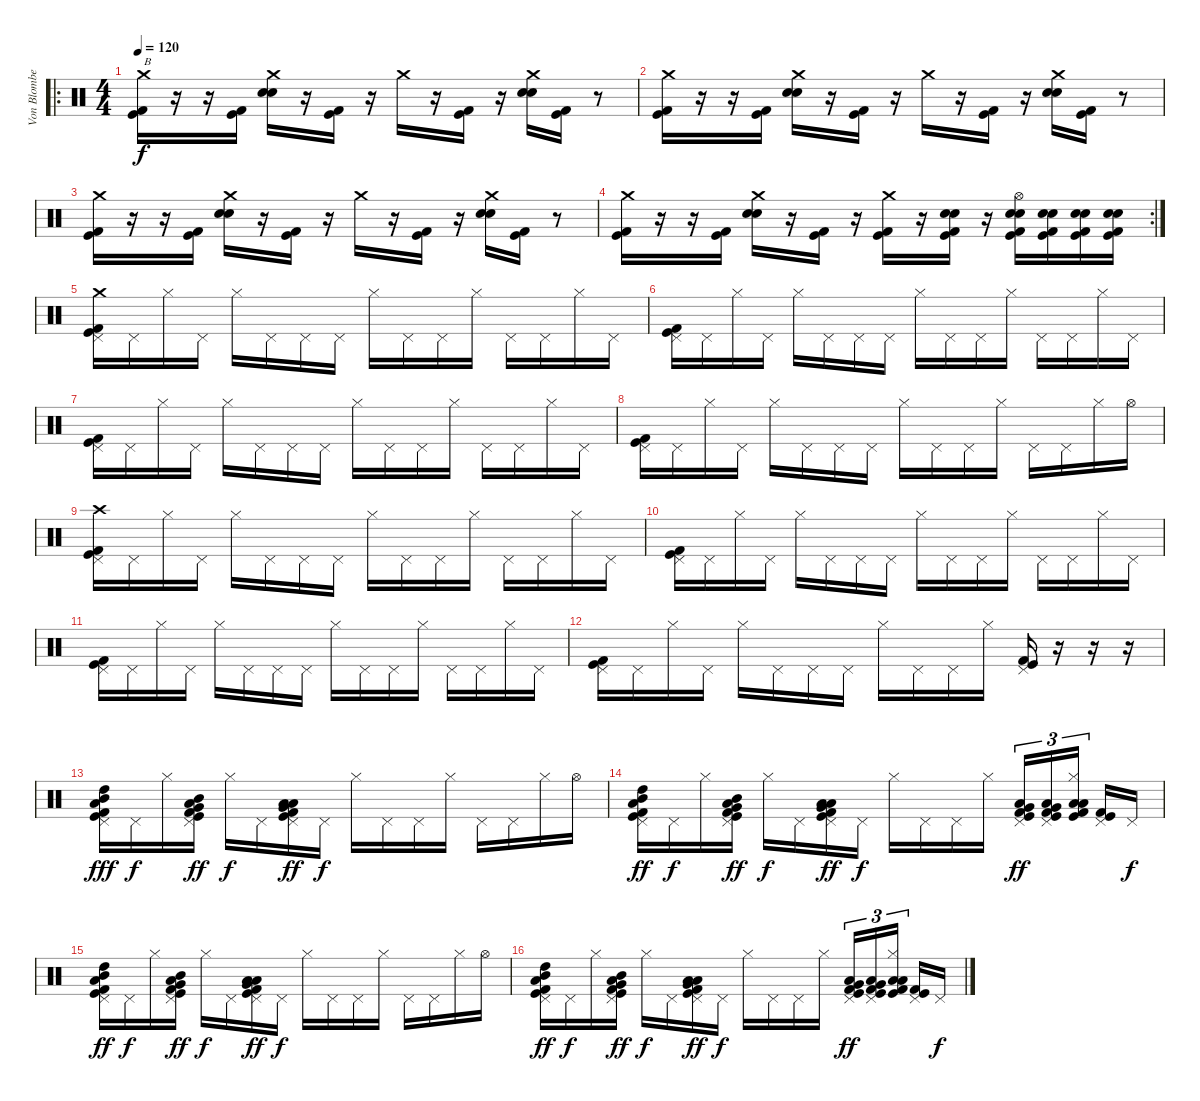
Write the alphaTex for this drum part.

\track ("Von Blomberg" "Von Blombe") {instrument percussion}
\staff {score}
\articulation defaults
\ro
\ts (4 4)
\tempo 120
\clef neutral
\ks c
("Crash medium (hit)" "Kick (hit) 2" "Kick (hit)").16{txt "B" dy f} r.16 r.16 ("Kick (hit)" "Kick (hit) 2").16 ("Crash medium (hit)" "Electric Snare (hit)" "Snare (hit) 2").16 r.16 ("Kick (hit)" "Kick (hit) 2").16 r.16 "Crash medium (hit)".16 r.16 ("Kick (hit)" "Kick (hit) 2").16 r.16 ("Crash medium (hit)" "Snare (hit) 2" "Electric Snare (hit)").16 ("Kick (hit)" "Kick (hit) 2").16 r.8 |
("Crash medium (hit)" "Kick (hit) 2" "Kick (hit)").16 r.16 r.16 ("Kick (hit)" "Kick (hit) 2").16 ("Crash medium (hit)" "Electric Snare (hit)" "Snare (hit) 2").16 r.16 ("Kick (hit)" "Kick (hit) 2").16 r.16 "Crash medium (hit)".16 r.16 ("Kick (hit)" "Kick (hit) 2").16 r.16 ("Crash medium (hit)" "Snare (hit) 2" "Electric Snare (hit)").16 ("Kick (hit)" "Kick (hit) 2").16 r.8 |
("Crash medium (hit)" "Kick (hit) 2" "Kick (hit)").16 r.16 r.16 ("Kick (hit)" "Kick (hit) 2").16 ("Crash medium (hit)" "Electric Snare (hit)" "Snare (hit) 2").16 r.16 ("Kick (hit)" "Kick (hit) 2").16 r.16 "Crash medium (hit)".16 r.16 ("Kick (hit)" "Kick (hit) 2").16 r.16 ("Crash medium (hit)" "Snare (hit) 2" "Electric Snare (hit)").16 ("Kick (hit)" "Kick (hit) 2").16 r.8 |
\rc 2
("Crash medium (hit)" "Kick (hit) 2" "Kick (hit)").16 r.16 r.16 ("Kick (hit)" "Kick (hit) 2").16 ("Crash medium (hit)" "Electric Snare (hit)" "Snare (hit) 2").16 r.16 ("Kick (hit)" "Kick (hit) 2").16 r.16 ("Crash medium (hit)" "Kick (hit)" "Kick (hit) 2").16 r.16 ("Snare (hit) 2" "Electric Snare (hit)" "Kick (hit)" "Kick (hit) 2").16 r.16 ("Kick (hit)" "Hi-Hat (open)" "Electric Snare (hit)" "Snare (hit) 2" "Kick (hit) 2").16 ("Snare (hit) 2" "Electric Snare (hit)" "Kick (hit)" "Kick (hit) 2").16 ("Snare (hit) 2" "Electric Snare (hit)" "Kick (hit)" "Kick (hit) 2").16 ("Snare (hit) 2" "Electric Snare (hit)" "Kick (hit)" "Kick (hit) 2").16 |
("Crash medium (hit)" "Pedal Hi-Hat (hit)" "Kick (hit) 2" "Kick (hit)").16 "Pedal Hi-Hat (hit)".16 "Hi-Hat (closed)".16 "Pedal Hi-Hat (hit)".16 "Hi-Hat (closed)".16 "Pedal Hi-Hat (hit)".16 "Pedal Hi-Hat (hit)".16 "Pedal Hi-Hat (hit)".16 "Hi-Hat (closed)".16 "Pedal Hi-Hat (hit)".16 "Pedal Hi-Hat (hit)".16 "Hi-Hat (closed)".16 "Pedal Hi-Hat (hit)".16 "Pedal Hi-Hat (hit)".16 "Hi-Hat (closed)".16 "Pedal Hi-Hat (hit)".16 |
("Pedal Hi-Hat (hit)" "Kick (hit) 2" "Kick (hit)").16 "Pedal Hi-Hat (hit)".16 "Hi-Hat (closed)".16 "Pedal Hi-Hat (hit)".16 "Hi-Hat (closed)".16 "Pedal Hi-Hat (hit)".16 "Pedal Hi-Hat (hit)".16 "Pedal Hi-Hat (hit)".16 "Hi-Hat (closed)".16 "Pedal Hi-Hat (hit)".16 "Pedal Hi-Hat (hit)".16 "Hi-Hat (closed)".16 "Pedal Hi-Hat (hit)".16 "Pedal Hi-Hat (hit)".16 "Hi-Hat (closed)".16 "Pedal Hi-Hat (hit)".16 |
("Pedal Hi-Hat (hit)" "Kick (hit) 2" "Kick (hit)").16 "Pedal Hi-Hat (hit)".16 "Hi-Hat (closed)".16 "Pedal Hi-Hat (hit)".16 "Hi-Hat (closed)".16 "Pedal Hi-Hat (hit)".16 "Pedal Hi-Hat (hit)".16 "Pedal Hi-Hat (hit)".16 "Hi-Hat (closed)".16 "Pedal Hi-Hat (hit)".16 "Pedal Hi-Hat (hit)".16 "Hi-Hat (closed)".16 "Pedal Hi-Hat (hit)".16 "Pedal Hi-Hat (hit)".16 "Hi-Hat (closed)".16 "Pedal Hi-Hat (hit)".16 |
("Pedal Hi-Hat (hit)" "Kick (hit) 2" "Kick (hit)").16 "Pedal Hi-Hat (hit)".16 "Hi-Hat (closed)".16 "Pedal Hi-Hat (hit)".16 "Hi-Hat (closed)".16 "Pedal Hi-Hat (hit)".16 "Pedal Hi-Hat (hit)".16 "Pedal Hi-Hat (hit)".16 "Hi-Hat (closed)".16 "Pedal Hi-Hat (hit)".16 "Pedal Hi-Hat (hit)".16 "Hi-Hat (closed)".16 "Pedal Hi-Hat (hit)".16 "Pedal Hi-Hat (hit)".16 "Hi-Hat (closed)".16 "Hi-Hat (open)".16 |
("Crash high (hit)" "Pedal Hi-Hat (hit)" "Kick (hit) 2" "Kick (hit)").16 "Pedal Hi-Hat (hit)".16 "Hi-Hat (closed)".16 "Pedal Hi-Hat (hit)".16 "Hi-Hat (closed)".16 "Pedal Hi-Hat (hit)".16 "Pedal Hi-Hat (hit)".16 "Pedal Hi-Hat (hit)".16 "Hi-Hat (closed)".16 "Pedal Hi-Hat (hit)".16 "Pedal Hi-Hat (hit)".16 "Hi-Hat (closed)".16 "Pedal Hi-Hat (hit)".16 "Pedal Hi-Hat (hit)".16 "Hi-Hat (closed)".16 "Pedal Hi-Hat (hit)".16 |
("Pedal Hi-Hat (hit)" "Kick (hit) 2" "Kick (hit)").16 "Pedal Hi-Hat (hit)".16 "Hi-Hat (closed)".16 "Pedal Hi-Hat (hit)".16 "Hi-Hat (closed)".16 "Pedal Hi-Hat (hit)".16 "Pedal Hi-Hat (hit)".16 "Pedal Hi-Hat (hit)".16 "Hi-Hat (closed)".16 "Pedal Hi-Hat (hit)".16 "Pedal Hi-Hat (hit)".16 "Hi-Hat (closed)".16 "Pedal Hi-Hat (hit)".16 "Pedal Hi-Hat (hit)".16 "Hi-Hat (closed)".16 "Pedal Hi-Hat (hit)".16 |
("Pedal Hi-Hat (hit)" "Kick (hit) 2" "Kick (hit)").16 "Pedal Hi-Hat (hit)".16 "Hi-Hat (closed)".16 "Pedal Hi-Hat (hit)".16 "Hi-Hat (closed)".16 "Pedal Hi-Hat (hit)".16 "Pedal Hi-Hat (hit)".16 "Pedal Hi-Hat (hit)".16 "Hi-Hat (closed)".16 "Pedal Hi-Hat (hit)".16 "Pedal Hi-Hat (hit)".16 "Hi-Hat (closed)".16 "Pedal Hi-Hat (hit)".16 "Pedal Hi-Hat (hit)".16 "Hi-Hat (closed)".16 "Pedal Hi-Hat (hit)".16 |
("Pedal Hi-Hat (hit)" "Kick (hit) 2" "Kick (hit)").16 "Pedal Hi-Hat (hit)".16 "Hi-Hat (closed)".16 "Pedal Hi-Hat (hit)".16 "Hi-Hat (closed)".16 "Pedal Hi-Hat (hit)".16 "Pedal Hi-Hat (hit)".16 "Pedal Hi-Hat (hit)".16 "Hi-Hat (closed)".16 "Pedal Hi-Hat (hit)".16 "Pedal Hi-Hat (hit)".16 "Hi-Hat (closed)".16 ("Pedal Hi-Hat (hit)" "Kick (hit)" "Kick (hit) 2").16 r.16 r.16 r.16 |
("High Tom (hit)" "Mid Tom (hit)" "Pedal Hi-Hat (hit)" "Low Tom (hit)" "Kick (hit) 2" "Kick (hit)").16{dy fff} "Pedal Hi-Hat (hit)".16{dy f} "Hi-Hat (closed)".16 ("Mid Tom (hit)" "Low Tom (hit)" "Pedal Hi-Hat (hit)" "Very Low Tom (hit)" "Kick (hit)" "Kick (hit) 2").16{dy ff} "Hi-Hat (closed)".16{dy f} "Pedal Hi-Hat (hit)".16 ("Very Low Tom (hit)" "Low Floor Tom (hit)" "Pedal Hi-Hat (hit)" "Low Floor Tom (hit)" "Kick (hit)" "Kick (hit) 2").16{dy ff} "Pedal Hi-Hat (hit)".16{dy f} "Hi-Hat (closed)".16 "Pedal Hi-Hat (hit)".16 "Pedal Hi-Hat (hit)".16 "Hi-Hat (closed)".16 "Pedal Hi-Hat (hit)".16 "Pedal Hi-Hat (hit)".16 "Hi-Hat (closed)".16 "Hi-Hat (open)".16 |
("High Tom (hit)" "Mid Tom (hit)" "Pedal Hi-Hat (hit)" "Low Tom (hit)" "Kick (hit) 2" "Kick (hit)").16{dy ff} "Pedal Hi-Hat (hit)".16{dy f} "Hi-Hat (closed)".16 ("Mid Tom (hit)" "Low Tom (hit)" "Pedal Hi-Hat (hit)" "Very Low Tom (hit)" "Kick (hit)" "Kick (hit) 2").16{dy ff} "Hi-Hat (closed)".16{dy f} "Pedal Hi-Hat (hit)".16 ("Very Low Tom (hit)" "Low Floor Tom (hit)" "Pedal Hi-Hat (hit)" "Low Floor Tom (hit)" "Kick (hit)" "Kick (hit) 2").16{dy ff} "Pedal Hi-Hat (hit)".16{dy f} "Hi-Hat (closed)".16 "Pedal Hi-Hat (hit)".16 "Pedal Hi-Hat (hit)".16 "Hi-Hat (closed)".16 ("Low Tom (hit)" "Very Low Tom (hit)" "Pedal Hi-Hat (hit)" "Kick (hit)" "Kick (hit) 2").16{tu (3 2) dy ff} ("Very Low Tom (hit)" "Low Floor Tom (hit)" "Pedal Hi-Hat (hit)" "Kick (hit)" "Kick (hit) 2").16{tu (3 2)} ("Low Floor Tom (hit)" "Low Floor Tom (hit)" "Hi-Hat (closed)" "Kick (hit)" "Kick (hit) 2").16{tu (3 2)} ("Pedal Hi-Hat (hit)" "Kick (hit)" "Kick (hit) 2").16 "Pedal Hi-Hat (hit)".16{dy f} |
("High Tom (hit)" "Mid Tom (hit)" "Pedal Hi-Hat (hit)" "Low Tom (hit)" "Kick (hit) 2" "Kick (hit)").16{dy ff} "Pedal Hi-Hat (hit)".16{dy f} "Hi-Hat (closed)".16 ("Mid Tom (hit)" "Low Tom (hit)" "Pedal Hi-Hat (hit)" "Very Low Tom (hit)" "Kick (hit)" "Kick (hit) 2").16{dy ff} "Hi-Hat (closed)".16{dy f} "Pedal Hi-Hat (hit)".16 ("Very Low Tom (hit)" "Low Floor Tom (hit)" "Pedal Hi-Hat (hit)" "Low Floor Tom (hit)" "Kick (hit)" "Kick (hit) 2").16{dy ff} "Pedal Hi-Hat (hit)".16{dy f} "Hi-Hat (closed)".16 "Pedal Hi-Hat (hit)".16 "Pedal Hi-Hat (hit)".16 "Hi-Hat (closed)".16 "Pedal Hi-Hat (hit)".16 "Pedal Hi-Hat (hit)".16 "Hi-Hat (closed)".16 "Hi-Hat (open)".16 |
("High Tom (hit)" "Mid Tom (hit)" "Pedal Hi-Hat (hit)" "Low Tom (hit)" "Kick (hit) 2" "Kick (hit)").16{dy ff} "Pedal Hi-Hat (hit)".16{dy f} "Hi-Hat (closed)".16 ("Mid Tom (hit)" "Low Tom (hit)" "Pedal Hi-Hat (hit)" "Very Low Tom (hit)" "Kick (hit)" "Kick (hit) 2").16{dy ff} "Hi-Hat (closed)".16{dy f} "Pedal Hi-Hat (hit)".16 ("Very Low Tom (hit)" "Low Floor Tom (hit)" "Pedal Hi-Hat (hit)" "Low Floor Tom (hit)" "Kick (hit)" "Kick (hit) 2").16{dy ff} "Pedal Hi-Hat (hit)".16{dy f} "Hi-Hat (closed)".16 "Pedal Hi-Hat (hit)".16 "Pedal Hi-Hat (hit)".16 "Hi-Hat (closed)".16 ("Low Tom (hit)" "Very Low Tom (hit)" "Pedal Hi-Hat (hit)" "Kick (hit)" "Kick (hit) 2").16{tu (3 2) dy ff} ("Very Low Tom (hit)" "Low Floor Tom (hit)" "Pedal Hi-Hat (hit)" "Kick (hit)" "Kick (hit) 2").16{tu (3 2)} ("Low Floor Tom (hit)" "Low Floor Tom (hit)" "Hi-Hat (closed)" "Kick (hit)" "Kick (hit) 2").16{tu (3 2)} ("Pedal Hi-Hat (hit)" "Kick (hit)" "Kick (hit) 2").16 "Pedal Hi-Hat (hit)".16{dy f}
